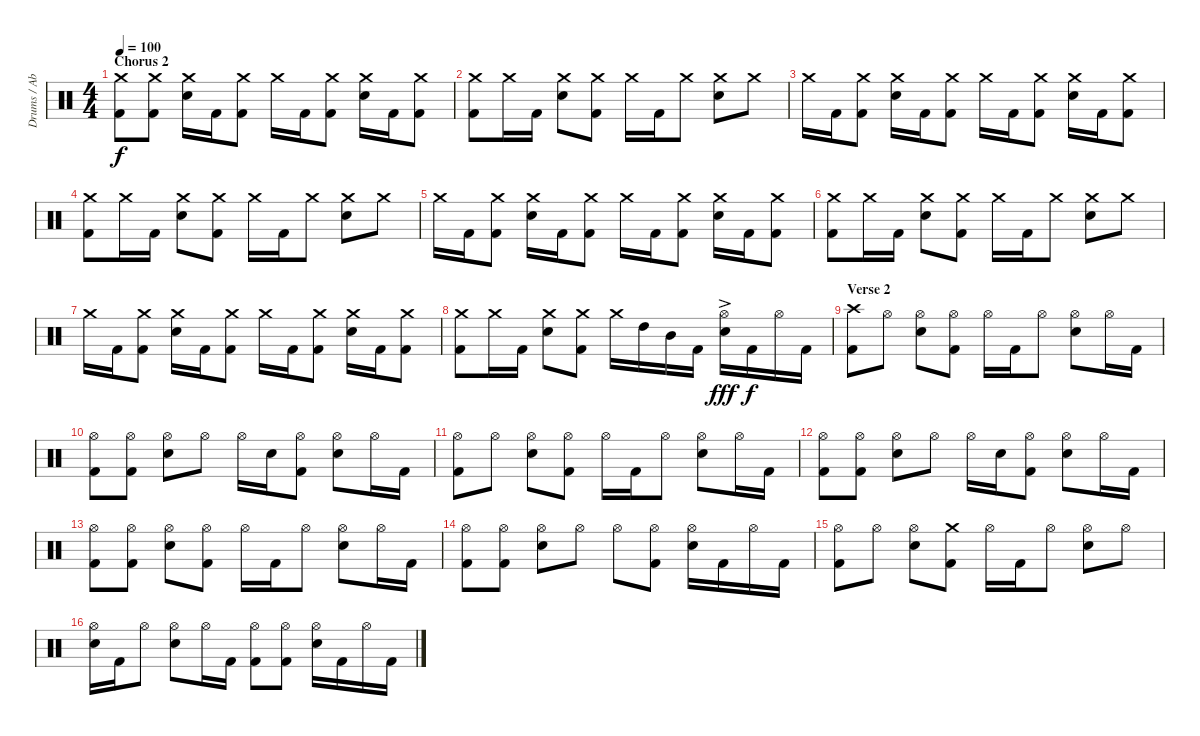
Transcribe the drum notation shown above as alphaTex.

\track ("Drums / Abe Cunningham" "Drums / Ab") {instrument percussion}
\staff {score}
\articulation defaults
\ts (4 4)
\section ("" "Chorus 2")
\tempo 100
\clef neutral
\ks c
("Crash medium (hit)" "Kick (hit) 2").8{dy f} ("Crash medium (hit)" "Kick (hit) 2").8 ("Crash medium (hit)" "Electric Snare (hit)").16 "Kick (hit) 2".16 ("Crash medium (hit)" "Kick (hit) 2").8 "Crash medium (hit)".16 "Kick (hit) 2".16 ("Crash medium (hit)" "Kick (hit) 2").8 ("Crash medium (hit)" "Electric Snare (hit)").16 "Kick (hit) 2".16 ("Crash medium (hit)" "Kick (hit) 2").8 |
("Crash medium (hit)" "Kick (hit) 2").8 "Crash medium (hit)".16 "Kick (hit) 2".16 ("Crash medium (hit)" "Electric Snare (hit)").8 ("Crash medium (hit)" "Kick (hit) 2").8 "Crash medium (hit)".16 "Kick (hit) 2".16 "Crash medium (hit)".8 ("Crash medium (hit)" "Electric Snare (hit)").8 "Crash medium (hit)".8 |
"Crash medium (hit)".16 "Kick (hit) 2".16 ("Crash medium (hit)" "Kick (hit) 2").8 ("Crash medium (hit)" "Electric Snare (hit)").16 "Kick (hit) 2".16 ("Crash medium (hit)" "Kick (hit) 2").8 "Crash medium (hit)".16 "Kick (hit) 2".16 ("Crash medium (hit)" "Kick (hit) 2").8 ("Crash medium (hit)" "Electric Snare (hit)").16 "Kick (hit) 2".16 ("Crash medium (hit)" "Kick (hit) 2").8 |
("Crash medium (hit)" "Kick (hit) 2").8 "Crash medium (hit)".16 "Kick (hit) 2".16 ("Crash medium (hit)" "Electric Snare (hit)").8 ("Crash medium (hit)" "Kick (hit) 2").8 "Crash medium (hit)".16 "Kick (hit) 2".16 "Crash medium (hit)".8 ("Crash medium (hit)" "Electric Snare (hit)").8 "Crash medium (hit)".8 |
"Crash medium (hit)".16 "Kick (hit) 2".16 ("Crash medium (hit)" "Kick (hit) 2").8 ("Crash medium (hit)" "Electric Snare (hit)").16 "Kick (hit) 2".16 ("Crash medium (hit)" "Kick (hit) 2").8 "Crash medium (hit)".16 "Kick (hit) 2".16 ("Crash medium (hit)" "Kick (hit) 2").8 ("Crash medium (hit)" "Electric Snare (hit)").16 "Kick (hit) 2".16 ("Crash medium (hit)" "Kick (hit) 2").8 |
("Crash medium (hit)" "Kick (hit) 2").8 "Crash medium (hit)".16 "Kick (hit) 2".16 ("Crash medium (hit)" "Electric Snare (hit)").8 ("Crash medium (hit)" "Kick (hit) 2").8 "Crash medium (hit)".16 "Kick (hit) 2".16 "Crash medium (hit)".8 ("Crash medium (hit)" "Electric Snare (hit)").8 "Crash medium (hit)".8 |
"Crash medium (hit)".16 "Kick (hit) 2".16 ("Crash medium (hit)" "Kick (hit) 2").8 ("Crash medium (hit)" "Electric Snare (hit)").16 "Kick (hit) 2".16 ("Crash medium (hit)" "Kick (hit) 2").8 "Crash medium (hit)".16 "Kick (hit) 2".16 ("Crash medium (hit)" "Kick (hit) 2").8 ("Crash medium (hit)" "Electric Snare (hit)").16 "Kick (hit) 2".16 ("Crash medium (hit)" "Kick (hit) 2").8 |
("Crash medium (hit)" "Kick (hit) 2").8 "Crash medium (hit)".16 "Kick (hit) 2".16 ("Crash medium (hit)" "Electric Snare (hit)").8 ("Crash medium (hit)" "Kick (hit) 2").8 "Crash medium (hit)".16 "High Tom (hit)".16 "Mid Tom (hit)".16 "Kick (hit) 2".16 ("Hi-Hat (open)"{ac} "Electric Snare (hit)").16{dy fff} "Kick (hit) 2".16{dy f} "Hi-Hat (open)".16 "Kick (hit) 2".16 |
\section ("" "Verse 2")
("Crash high (hit)" "Kick (hit) 2").8 "Hi-Hat (open)".8 ("Hi-Hat (open)" "Electric Snare (hit)").8 ("Hi-Hat (open)" "Kick (hit) 2").8 "Hi-Hat (open)".16 "Kick (hit) 2".16 "Hi-Hat (open)".8 ("Hi-Hat (open)" "Electric Snare (hit)").8 "Hi-Hat (open)".16 "Kick (hit) 2".16 |
("Hi-Hat (open)" "Kick (hit) 2").8 ("Hi-Hat (open)" "Kick (hit) 2").8 ("Hi-Hat (open)" "Electric Snare (hit)").8 "Hi-Hat (open)".8 "Hi-Hat (open)".16 "Electric Snare (hit)".16 ("Hi-Hat (open)" "Kick (hit) 2").8 ("Hi-Hat (open)" "Electric Snare (hit)").8 "Hi-Hat (open)".16 "Kick (hit) 2".16 |
("Hi-Hat (open)" "Kick (hit) 2").8 "Hi-Hat (open)".8 ("Hi-Hat (open)" "Electric Snare (hit)").8 ("Hi-Hat (open)" "Kick (hit) 2").8 "Hi-Hat (open)".16 "Kick (hit) 2".16 "Hi-Hat (open)".8 ("Hi-Hat (open)" "Electric Snare (hit)").8 "Hi-Hat (open)".16 "Kick (hit) 2".16 |
("Hi-Hat (open)" "Kick (hit) 2").8 ("Hi-Hat (open)" "Kick (hit) 2").8 ("Hi-Hat (open)" "Electric Snare (hit)").8 "Hi-Hat (open)".8 "Hi-Hat (open)".16 "Electric Snare (hit)".16 ("Hi-Hat (open)" "Kick (hit) 2").8 ("Hi-Hat (open)" "Electric Snare (hit)").8 "Hi-Hat (open)".16 "Kick (hit) 2".16 |
("Hi-Hat (open)" "Kick (hit) 2").8 ("Hi-Hat (open)" "Kick (hit) 2").8 ("Hi-Hat (open)" "Electric Snare (hit)").8 ("Hi-Hat (open)" "Kick (hit) 2").8 "Hi-Hat (open)".16 "Kick (hit) 2".16 "Hi-Hat (open)".8 ("Hi-Hat (open)" "Electric Snare (hit)").8 "Hi-Hat (open)".16 "Kick (hit) 2".16 |
("Hi-Hat (open)" "Kick (hit) 2").8 ("Hi-Hat (open)" "Kick (hit) 2").8 ("Hi-Hat (open)" "Electric Snare (hit)").8 "Hi-Hat (open)".8 "Hi-Hat (open)".8 ("Hi-Hat (open)" "Kick (hit) 2").8 ("Hi-Hat (open)" "Electric Snare (hit)").16 "Kick (hit) 2".16 "Hi-Hat (open)".16 "Kick (hit) 2".16 |
("Hi-Hat (open)" "Kick (hit) 2").8 "Hi-Hat (open)".8 ("Hi-Hat (open)" "Electric Snare (hit)").8 ("Crash medium (hit)" "Kick (hit) 2").8 "Hi-Hat (open)".16 "Kick (hit) 2".16 "Hi-Hat (open)".8 ("Hi-Hat (open)" "Electric Snare (hit)").8 "Hi-Hat (open)".8 |
("Hi-Hat (open)" "Electric Snare (hit)").16 "Kick (hit) 2".16 "Hi-Hat (open)".8 ("Hi-Hat (open)" "Electric Snare (hit)").8 "Hi-Hat (open)".16 "Kick (hit) 2".16 ("Hi-Hat (open)" "Kick (hit) 2").8 ("Hi-Hat (open)" "Kick (hit) 2").8 ("Hi-Hat (open)" "Electric Snare (hit)").16 "Kick (hit) 2".16 "Hi-Hat (open)".16 "Kick (hit) 2".16
